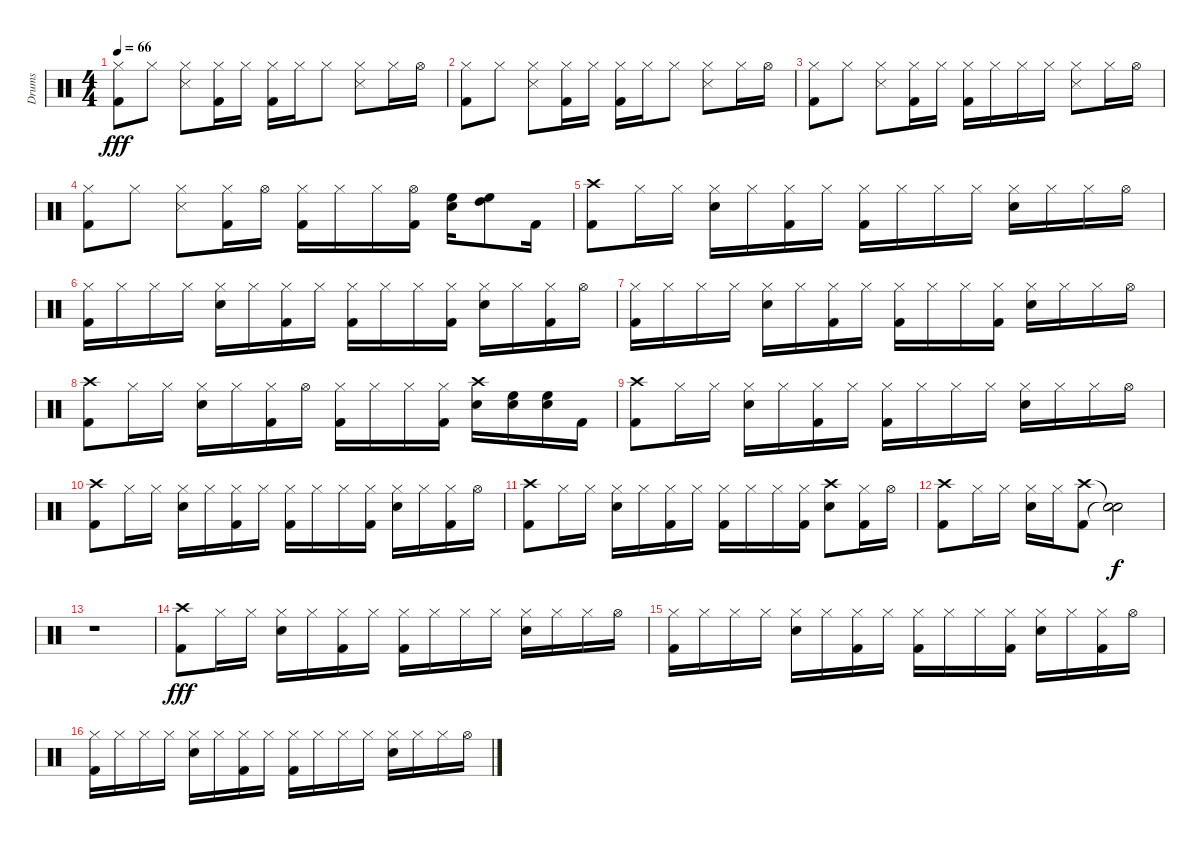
\track ("Drums" "Drums") {instrument percussion}
\staff {score}
\articulation defaults
\ts (4 4)
\tempo 66
\clef neutral
\ks c
("Hi-Hat (closed)" "Kick (hit) 2").8{dy fff} "Hi-Hat (closed)".8 ("Hi-Hat (closed)" "Snare (side stick) 3").8 ("Hi-Hat (closed)" "Kick (hit) 2").16 "Hi-Hat (closed)".16 ("Hi-Hat (closed)" "Kick (hit) 2").16 "Hi-Hat (closed)".16 "Hi-Hat (closed)".8 ("Hi-Hat (closed)" "Snare (side stick) 3").8 "Hi-Hat (closed)".16 "Hi-Hat (open)".16 |
("Hi-Hat (closed)" "Kick (hit) 2").8 "Hi-Hat (closed)".8 ("Hi-Hat (closed)" "Snare (side stick) 3").8 ("Hi-Hat (closed)" "Kick (hit) 2").16 "Hi-Hat (closed)".16 ("Hi-Hat (closed)" "Kick (hit) 2").16 "Hi-Hat (closed)".16 "Hi-Hat (closed)".8 ("Hi-Hat (closed)" "Snare (side stick) 3").8 "Hi-Hat (closed)".16 "Hi-Hat (open)".16 |
("Hi-Hat (closed)" "Kick (hit) 2").8 "Hi-Hat (closed)".8 ("Hi-Hat (closed)" "Snare (side stick) 3").8 ("Hi-Hat (closed)" "Kick (hit) 2").16 "Hi-Hat (closed)".16 ("Hi-Hat (closed)" "Kick (hit) 2").16 "Hi-Hat (closed)".16 "Hi-Hat (closed)".16 "Hi-Hat (closed)".16 ("Hi-Hat (closed)" "Snare (side stick) 3").8 "Hi-Hat (closed)".16 "Hi-Hat (open)".16 |
("Hi-Hat (closed)" "Kick (hit) 2").8 "Hi-Hat (closed)".8 ("Hi-Hat (closed)" "Snare (side stick) 3").8 ("Hi-Hat (closed)" "Kick (hit) 2").16 "Hi-Hat (open)".16 ("Hi-Hat (closed)" "Kick (hit) 2").16 "Hi-Hat (closed)".16 "Hi-Hat (closed)".16 ("Hi-Hat (open)" "Kick (hit) 2").16 ("Snare (hit) 2" "High Floor Tom (hit)").16 ("High Floor Tom (hit)" "High Tom (hit)").8 "Kick (hit) 2".16 |
("Crash high (hit)" "Kick (hit) 2").8 "Hi-Hat (closed)".16 "Hi-Hat (closed)".16 ("Hi-Hat (closed)" "Snare (hit) 2").16 "Hi-Hat (closed)".16 ("Hi-Hat (closed)" "Kick (hit) 2").16 "Hi-Hat (closed)".16 ("Hi-Hat (closed)" "Kick (hit) 2").16 "Hi-Hat (closed)".16 "Hi-Hat (closed)".16 "Hi-Hat (closed)".16 ("Hi-Hat (closed)" "Snare (hit) 2").16 "Hi-Hat (closed)".16 "Hi-Hat (closed)".16 "Hi-Hat (open)".16 |
("Hi-Hat (closed)" "Kick (hit) 2").16 "Hi-Hat (closed)".16 "Hi-Hat (closed)".16 "Hi-Hat (closed)".16 ("Hi-Hat (closed)" "Snare (hit) 2").16 "Hi-Hat (closed)".16 ("Hi-Hat (closed)" "Kick (hit) 2").16 "Hi-Hat (closed)".16 ("Hi-Hat (closed)" "Kick (hit) 2").16 "Hi-Hat (closed)".16 "Hi-Hat (closed)".16 ("Hi-Hat (closed)" "Kick (hit) 2").16 ("Hi-Hat (closed)" "Snare (hit) 2").16 "Hi-Hat (closed)".16 ("Hi-Hat (closed)" "Kick (hit) 2").16 "Hi-Hat (open)".16 |
("Hi-Hat (closed)" "Kick (hit) 2").16 "Hi-Hat (closed)".16 "Hi-Hat (closed)".16 "Hi-Hat (closed)".16 ("Hi-Hat (closed)" "Snare (hit) 2").16 "Hi-Hat (closed)".16 ("Hi-Hat (closed)" "Kick (hit) 2").16 "Hi-Hat (closed)".16 ("Hi-Hat (closed)" "Kick (hit) 2").16 "Hi-Hat (closed)".16 "Hi-Hat (closed)".16 ("Hi-Hat (closed)" "Kick (hit) 2").16 ("Hi-Hat (closed)" "Snare (hit) 2").16 "Hi-Hat (closed)".16 "Hi-Hat (closed)".16 "Hi-Hat (open)".16 |
("Crash high (hit)" "Kick (hit) 2").8 "Hi-Hat (closed)".16 "Hi-Hat (closed)".16 ("Hi-Hat (closed)" "Snare (hit) 2").16 "Hi-Hat (closed)".16 ("Hi-Hat (closed)" "Kick (hit) 2").16 "Hi-Hat (open)".16 ("Hi-Hat (closed)" "Kick (hit) 2").16 "Hi-Hat (closed)".16 "Hi-Hat (closed)".16 ("Hi-Hat (closed)" "Kick (hit) 2").16 ("Crash high (hit)" "Snare (hit) 2").16 ("Snare (hit) 2" "High Floor Tom (hit)").16 ("Snare (hit) 2" "High Floor Tom (hit)").16 "Kick (hit) 2".16 |
("Crash high (hit)" "Kick (hit) 2").8 "Hi-Hat (closed)".16 "Hi-Hat (closed)".16 ("Hi-Hat (closed)" "Snare (hit) 2").16 "Hi-Hat (closed)".16 ("Hi-Hat (closed)" "Kick (hit) 2").16 "Hi-Hat (closed)".16 ("Hi-Hat (closed)" "Kick (hit) 2").16 "Hi-Hat (closed)".16 "Hi-Hat (closed)".16 "Hi-Hat (closed)".16 ("Hi-Hat (closed)" "Snare (hit) 2").16 "Hi-Hat (closed)".16 "Hi-Hat (closed)".16 "Hi-Hat (open)".16 |
("Crash high (hit)" "Kick (hit) 2").8 "Hi-Hat (closed)".16 "Hi-Hat (closed)".16 ("Hi-Hat (closed)" "Snare (hit) 2").16 "Hi-Hat (closed)".16 ("Hi-Hat (closed)" "Kick (hit) 2").16 "Hi-Hat (closed)".16 ("Hi-Hat (closed)" "Kick (hit) 2").16 "Hi-Hat (closed)".16 "Hi-Hat (closed)".16 ("Hi-Hat (closed)" "Kick (hit) 2").16 ("Hi-Hat (closed)" "Snare (hit) 2").16 "Hi-Hat (closed)".16 ("Hi-Hat (closed)" "Kick (hit) 2").16 "Hi-Hat (open)".16 |
("Crash high (hit)" "Kick (hit) 2").8 "Hi-Hat (closed)".16 "Hi-Hat (closed)".16 ("Hi-Hat (closed)" "Snare (hit) 2").16 "Hi-Hat (closed)".16 ("Hi-Hat (closed)" "Kick (hit) 2").16 "Hi-Hat (closed)".16 ("Hi-Hat (closed)" "Kick (hit) 2").16 "Hi-Hat (closed)".16 "Hi-Hat (closed)".16 ("Hi-Hat (closed)" "Kick (hit) 2").16 ("Crash high (hit)" "Snare (hit) 2").8 ("Hi-Hat (closed)" "Kick (hit) 2").16 "Hi-Hat (open)".16 |
("Crash high (hit)" "Kick (hit) 2").8 "Hi-Hat (closed)".16 "Hi-Hat (closed)".16 ("Hi-Hat (closed)" "Snare (hit) 2").16 "Hi-Hat (closed)".16 ("Crash high (hit)" "Kick (hit) 2").8 ("Snare (hit)"{t} "Snare (hit)"{t}).2{dy f} |
r.1 |
("Crash high (hit)" "Kick (hit) 2").8{dy fff} "Hi-Hat (closed)".16 "Hi-Hat (closed)".16 ("Hi-Hat (closed)" "Snare (hit) 2").16 "Hi-Hat (closed)".16 ("Hi-Hat (closed)" "Kick (hit) 2").16 "Hi-Hat (closed)".16 ("Hi-Hat (closed)" "Kick (hit) 2").16 "Hi-Hat (closed)".16 "Hi-Hat (closed)".16 "Hi-Hat (closed)".16 ("Hi-Hat (closed)" "Snare (hit) 2").16 "Hi-Hat (closed)".16 "Hi-Hat (closed)".16 "Hi-Hat (open)".16 |
("Hi-Hat (closed)" "Kick (hit) 2").16 "Hi-Hat (closed)".16 "Hi-Hat (closed)".16 "Hi-Hat (closed)".16 ("Hi-Hat (closed)" "Snare (hit) 2").16 "Hi-Hat (closed)".16 ("Hi-Hat (closed)" "Kick (hit) 2").16 "Hi-Hat (closed)".16 ("Hi-Hat (closed)" "Kick (hit) 2").16 "Hi-Hat (closed)".16 "Hi-Hat (closed)".16 ("Hi-Hat (closed)" "Kick (hit) 2").16 ("Hi-Hat (closed)" "Snare (hit) 2").16 "Hi-Hat (closed)".16 ("Hi-Hat (closed)" "Kick (hit) 2").16 "Hi-Hat (open)".16 |
("Hi-Hat (closed)" "Kick (hit) 2").16 "Hi-Hat (closed)".16 "Hi-Hat (closed)".16 "Hi-Hat (closed)".16 ("Hi-Hat (closed)" "Snare (hit) 2").16 "Hi-Hat (closed)".16 ("Hi-Hat (closed)" "Kick (hit) 2").16 "Hi-Hat (closed)".16 ("Hi-Hat (closed)" "Kick (hit) 2").16 "Hi-Hat (closed)".16 "Hi-Hat (closed)".16 "Hi-Hat (closed)".16 ("Hi-Hat (closed)" "Snare (hit) 2").16 "Hi-Hat (closed)".16 "Hi-Hat (closed)".16 "Hi-Hat (open)".16
